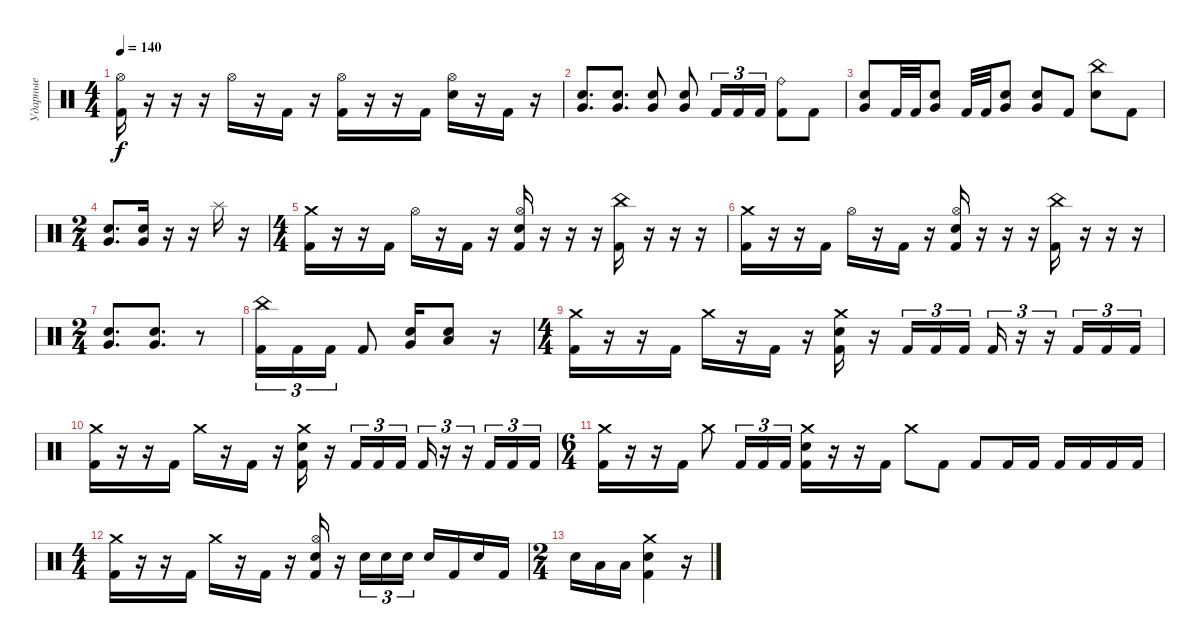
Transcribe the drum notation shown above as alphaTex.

\track ("Ударные" "Ударные") {instrument percussion}
\staff {score}
\articulation defaults
\ts (4 4)
\tempo 140
\clef neutral
\ks c
("Kick (hit) 2" "Hi-Hat (open)").16{dy f} r.16 r.16 r.16 "Hi-Hat (open)".16 r.16 "Kick (hit) 2".16 r.16 ("Kick (hit) 2" "Hi-Hat (open)").16 r.16 r.16 "Kick (hit) 2".16 ("Electric Snare (hit)" "Hi-Hat (open)").16 r.16 "Kick (hit) 2".16 r.16 |
("Very Low Tom (hit)" "Electric Snare (hit)").8{d} ("Very Low Tom (hit)" "Electric Snare (hit)").8{d} ("Very Low Tom (hit)" "Electric Snare (hit)").8 ("Very Low Tom (hit)" "Electric Snare (hit)").8 "Kick (hit) 2".16{tu (3 2)} "Kick (hit) 2".16{tu (3 2)} "Kick (hit) 2".16{tu (3 2)} ("Kick (hit) 2" "Ride (bell)").8 "Kick (hit) 2".8 |
("Electric Snare (hit)" "Very Low Tom (hit)").8 "Kick (hit) 2".32 "Kick (hit) 2".32 ("Electric Snare (hit)" "Very Low Tom (hit)").8 "Kick (hit) 2".32 "Kick (hit) 2".32 ("Electric Snare (hit)" "Very Low Tom (hit)").8 ("Electric Snare (hit)" "Very Low Tom (hit)").8 "Kick (hit) 2".8 ("China (hit)" "Electric Snare (hit)").8 "Kick (hit) 2".8 |
\ts (2 4)
("Very Low Tom (hit)" "Electric Snare (hit)").8{d} ("Very Low Tom (hit)" "Electric Snare (hit)").16 r.16 r.16 "Splash (hit)".16 r.16 |
\ts (4 4)
("Kick (hit) 2" "Crash medium (hit)").16 r.16 r.16 "Kick (hit) 2".16 "Hi-Hat (open)".16 r.16 "Kick (hit) 2".16 r.16 ("Hi-Hat (open)" "Kick (hit) 2" "Electric Snare (hit)").16 r.16 r.16 r.16 ("China (hit)" "Kick (hit) 2").16 r.16 r.16 r.16 |
("Kick (hit) 2" "Crash medium (hit)").16 r.16 r.16 "Kick (hit) 2".16 "Hi-Hat (open)".16 r.16 "Kick (hit) 2".16 r.16 ("Hi-Hat (open)" "Kick (hit) 2" "Electric Snare (hit)").16 r.16 r.16 r.16 ("China (hit)" "Kick (hit) 2").16 r.16 r.16 r.16 |
\ts (2 4)
("Electric Snare (hit)" "Very Low Tom (hit)").8{d} ("Electric Snare (hit)" "Very Low Tom (hit)").8{d} r.8 |
("Kick (hit) 2" "China (hit)").16{tu (3 2)} "Kick (hit) 2".16{tu (3 2)} "Kick (hit) 2".16{tu (3 2)} "Kick (hit) 2".8 ("Electric Snare (hit)" "Very Low Tom (hit)").16 ("Electric Snare (hit)" "Low Floor Tom (hit)").8 r.16 |
\ts (4 4)
("Kick (hit) 2" "Crash medium (hit)").16 r.16 r.16 "Kick (hit) 2".16 "Crash medium (hit)".16 r.16 "Kick (hit) 2".16 r.16 ("Crash medium (hit)" "Kick (hit) 2" "Electric Snare (hit)").16 r.16 "Kick (hit) 2".16{tu (3 2)} "Kick (hit) 2".16{tu (3 2)} "Kick (hit) 2".16{tu (3 2)} "Kick (hit) 2".16{tu (3 2)} r.16{tu (3 2)} r.16{tu (3 2)} "Kick (hit) 2".16{tu (3 2)} "Kick (hit) 2".16{tu (3 2)} "Kick (hit) 2".16{tu (3 2)} |
("Kick (hit) 2" "Crash medium (hit)").16 r.16 r.16 "Kick (hit) 2".16 "Crash medium (hit)".16 r.16 "Kick (hit) 2".16 r.16 ("Crash medium (hit)" "Kick (hit) 2" "Electric Snare (hit)").16 r.16 "Kick (hit) 2".16{tu (3 2)} "Kick (hit) 2".16{tu (3 2)} "Kick (hit) 2".16{tu (3 2)} "Kick (hit) 2".16{tu (3 2)} r.16{tu (3 2)} r.16{tu (3 2)} "Kick (hit) 2".16{tu (3 2)} "Kick (hit) 2".16{tu (3 2)} "Kick (hit) 2".16{tu (3 2)} |
\ts (6 4)
("Kick (hit) 2" "Crash medium (hit)").16 r.16 r.16 "Kick (hit) 2".16 "Crash medium (hit)".8 "Kick (hit) 2".16{tu (3 2)} "Kick (hit) 2".16{tu (3 2)} "Kick (hit) 2".16{tu (3 2) beam splitsecondary} ("Kick (hit) 2" "Electric Snare (hit)" "Crash medium (hit)").16 r.16 r.16 "Kick (hit) 2".16 "Crash medium (hit)".8 "Kick (hit) 2".8 "Kick (hit) 2".8 "Kick (hit) 2".16 "Kick (hit) 2".16 "Kick (hit) 2".16 "Kick (hit) 2".16 "Kick (hit) 2".16 "Kick (hit) 2".16 |
\ts (4 4)
("Kick (hit) 2" "Crash medium (hit)").16 r.16 r.16 "Kick (hit) 2".16 "Crash medium (hit)".16 r.16 "Kick (hit) 2".16 r.16 ("Hi-Hat (open)" "Kick (hit) 2" "Electric Snare (hit)").16 r.16 "Electric Snare (hit)".16{tu (3 2)} "Electric Snare (hit)".16{tu (3 2)} "Electric Snare (hit)".16{tu (3 2)} "Electric Snare (hit)".16 "Kick (hit) 2".16 "Electric Snare (hit)".16 "Kick (hit) 2".16 |
\ts (2 4)
"Electric Snare (hit)".16 "Low Tom (hit)".16 "Low Tom (hit)".16 ("Kick (hit) 2" "Crash medium (hit)" "Electric Snare (hit)").4 r.16
